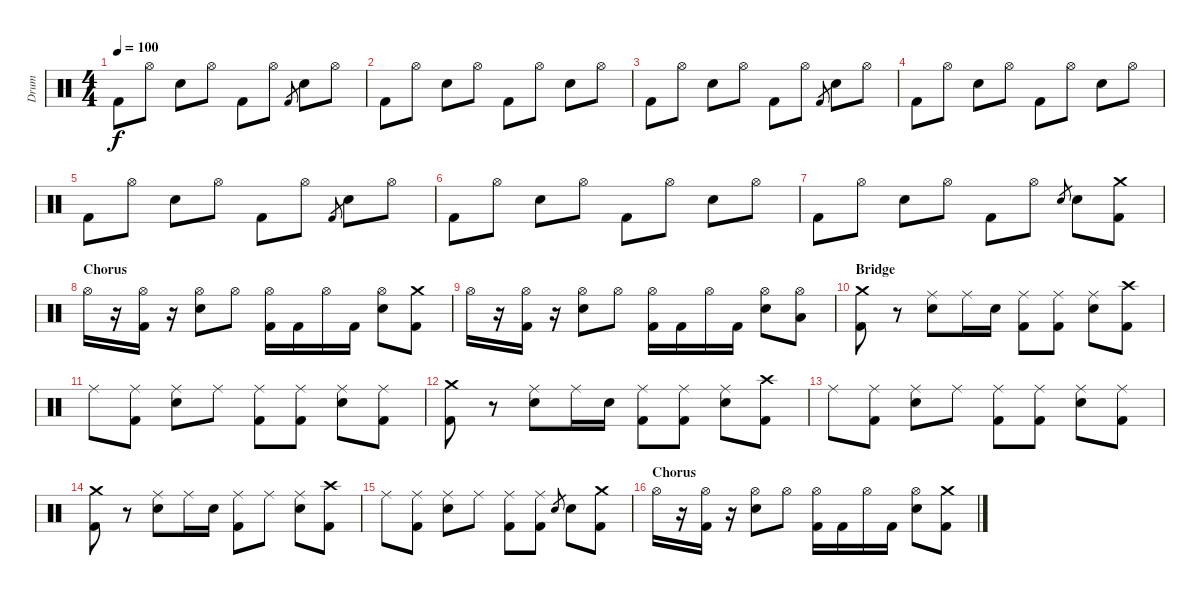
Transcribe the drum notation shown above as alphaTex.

\track ("Drum" "Drum") {instrument percussion}
\staff {score}
\articulation defaults
\ts (4 4)
\tempo 100
\clef neutral
\ks c "Kick (hit) 2".8{dy f} "Hi-Hat (open)".8 "Snare (hit) 2".8 "Hi-Hat (open)".8 "Kick (hit) 2".8 "Hi-Hat (open)".8 "Kick (hit) 2".8{gr} "Snare (hit) 2".8 "Hi-Hat (open)".8
|
"Kick (hit) 2".8 "Hi-Hat (open)".8 "Snare (hit) 2".8 "Hi-Hat (open)".8 "Kick (hit) 2".8 "Hi-Hat (open)".8 "Snare (hit) 2".8 "Hi-Hat (open)".8 |
"Kick (hit) 2".8 "Hi-Hat (open)".8 "Snare (hit) 2".8 "Hi-Hat (open)".8 "Kick (hit) 2".8 "Hi-Hat (open)".8 "Kick (hit) 2".8{gr} "Snare (hit) 2".8 "Hi-Hat (open)".8 |
"Kick (hit) 2".8 "Hi-Hat (open)".8 "Snare (hit) 2".8 "Hi-Hat (open)".8 "Kick (hit) 2".8 "Hi-Hat (open)".8 "Snare (hit) 2".8 "Hi-Hat (open)".8 |
"Kick (hit) 2".8 "Hi-Hat (open)".8 "Snare (hit) 2".8 "Hi-Hat (open)".8 "Kick (hit) 2".8 "Hi-Hat (open)".8 "Kick (hit) 2".8{gr} "Snare (hit) 2".8 "Hi-Hat (open)".8 |
"Kick (hit) 2".8 "Hi-Hat (open)".8 "Snare (hit) 2".8 "Hi-Hat (open)".8 "Kick (hit) 2".8 "Hi-Hat (open)".8 "Snare (hit) 2".8 "Hi-Hat (open)".8 |
"Kick (hit) 2".8 "Hi-Hat (open)".8 "Snare (hit) 2".8 "Hi-Hat (open)".8 "Kick (hit) 2".8 "Hi-Hat (open)".8 "Snare (hit) 2".8{gr} "Snare (hit) 2".8 ("Crash medium (hit)" "Kick (hit) 2").8 |
\section ("" "Chorus")
"Hi-Hat (open)".16 r.16 ("Hi-Hat (open)" "Kick (hit) 2").16 r.16 ("Hi-Hat (open)" "Snare (hit) 2").8 "Hi-Hat (open)".8 ("Hi-Hat (open)" "Kick (hit) 2").16 "Kick (hit) 2".16 "Hi-Hat (open)".16 "Kick (hit) 2".16 ("Hi-Hat (open)" "Snare (hit) 2").8 ("Crash medium (hit)" "Kick (hit) 2").8 |
"Hi-Hat (open)".16 r.16 ("Hi-Hat (open)" "Kick (hit) 2").16 r.16 ("Hi-Hat (open)" "Snare (hit) 2").8 "Hi-Hat (open)".8 ("Hi-Hat (open)" "Kick (hit) 2").16 "Kick (hit) 2".16 "Hi-Hat (open)".16 "Kick (hit) 2".16 ("Hi-Hat (open)" "Snare (hit) 2").8 ("Hi-Hat (open)" "Low Tom (hit)").8 |
\section ("" "Bridge")
("Crash medium (hit)" "Kick (hit) 2").8 r.8 ("Ride (middle)" "Snare (hit) 2").8 "Ride (middle)".16 "Snare (hit) 2".16 ("Ride (middle)" "Kick (hit) 2").8 ("Ride (middle)" "Kick (hit) 2").8 ("Ride (middle)" "Snare (hit) 2").8 ("Crash high (hit)" "Kick (hit) 2").8 |
"Ride (middle)".8 ("Ride (middle)" "Kick (hit) 2").8 ("Ride (middle)" "Snare (hit) 2").8 "Ride (middle)".8 ("Ride (middle)" "Kick (hit) 2").8 ("Ride (middle)" "Kick (hit) 2").8 ("Ride (middle)" "Snare (hit) 2").8 ("Ride (middle)" "Kick (hit) 2").8 |
("Crash medium (hit)" "Kick (hit) 2").8 r.8 ("Ride (middle)" "Snare (hit) 2").8 "Ride (middle)".16 "Snare (hit) 2".16 ("Ride (middle)" "Kick (hit) 2").8 ("Ride (middle)" "Kick (hit) 2").8 ("Ride (middle)" "Snare (hit) 2").8 ("Crash high (hit)" "Kick (hit) 2").8 |
"Ride (middle)".8 ("Ride (middle)" "Kick (hit) 2").8 ("Ride (middle)" "Snare (hit) 2").8 "Ride (middle)".8 ("Ride (middle)" "Kick (hit) 2").8 ("Ride (middle)" "Kick (hit) 2").8 ("Ride (middle)" "Snare (hit) 2").8 ("Ride (middle)" "Kick (hit) 2").8 |
("Crash medium (hit)" "Kick (hit) 2").8 r.8 ("Ride (middle)" "Snare (hit) 2").8 "Ride (middle)".16 "Snare (hit) 2".16 ("Ride (middle)" "Kick (hit) 2").8 "Ride (middle)".8 ("Ride (middle)" "Snare (hit) 2").8 ("Crash high (hit)" "Kick (hit) 2").8 |
"Ride (middle)".8 ("Ride (middle)" "Kick (hit) 2").8 ("Ride (middle)" "Snare (hit) 2").8 "Ride (middle)".8 ("Ride (middle)" "Kick (hit) 2").8 ("Ride (middle)" "Kick (hit) 2").8 "Snare (hit) 2".8{gr} "Snare (hit) 2".8 ("Crash medium (hit)" "Kick (hit) 2").8 |
\section ("" "Chorus")
"Hi-Hat (open)".16 r.16 ("Hi-Hat (open)" "Kick (hit) 2").16 r.16 ("Hi-Hat (open)" "Snare (hit) 2").8 "Hi-Hat (open)".8 ("Hi-Hat (open)" "Kick (hit) 2").16 "Kick (hit) 2".16 "Hi-Hat (open)".16 "Kick (hit) 2".16 ("Hi-Hat (open)" "Snare (hit) 2").8 ("Crash medium (hit)" "Kick (hit) 2").8
